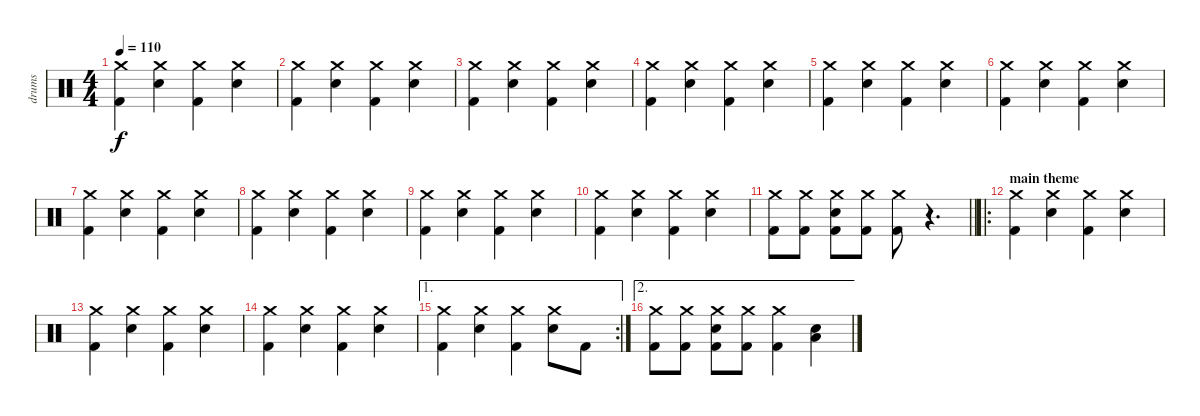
\track ("drums" "drums") {instrument percussion}
\staff {score}
\articulation defaults
\ts (4 4)
\tempo 110
\clef neutral
\ks c
("Crash medium (hit)" "Kick (hit) 2").4{dy f} ("Crash medium (hit)" "Electric Snare (hit)").4 ("Crash medium (hit)" "Kick (hit) 2").4 ("Crash medium (hit)" "Electric Snare (hit)").4 |
("Crash medium (hit)" "Kick (hit) 2").4 ("Crash medium (hit)" "Electric Snare (hit)").4 ("Crash medium (hit)" "Kick (hit) 2").4 ("Crash medium (hit)" "Electric Snare (hit)").4 |
("Crash medium (hit)" "Kick (hit) 2").4 ("Crash medium (hit)" "Electric Snare (hit)").4 ("Crash medium (hit)" "Kick (hit) 2").4 ("Crash medium (hit)" "Electric Snare (hit)").4 |
("Crash medium (hit)" "Kick (hit) 2").4 ("Crash medium (hit)" "Electric Snare (hit)").4 ("Crash medium (hit)" "Kick (hit) 2").4 ("Crash medium (hit)" "Electric Snare (hit)").4 |
("Crash medium (hit)" "Kick (hit) 2").4 ("Crash medium (hit)" "Electric Snare (hit)").4 ("Crash medium (hit)" "Kick (hit) 2").4 ("Crash medium (hit)" "Electric Snare (hit)").4 |
("Crash medium (hit)" "Kick (hit) 2").4 ("Crash medium (hit)" "Electric Snare (hit)").4 ("Crash medium (hit)" "Kick (hit) 2").4 ("Crash medium (hit)" "Electric Snare (hit)").4 |
("Crash medium (hit)" "Kick (hit) 2").4 ("Crash medium (hit)" "Electric Snare (hit)").4 ("Crash medium (hit)" "Kick (hit) 2").4 ("Crash medium (hit)" "Electric Snare (hit)").4 |
("Crash medium (hit)" "Kick (hit) 2").4 ("Crash medium (hit)" "Electric Snare (hit)").4 ("Crash medium (hit)" "Kick (hit) 2").4 ("Crash medium (hit)" "Electric Snare (hit)").4 |
("Crash medium (hit)" "Kick (hit) 2").4 ("Crash medium (hit)" "Electric Snare (hit)").4 ("Crash medium (hit)" "Kick (hit) 2").4 ("Crash medium (hit)" "Electric Snare (hit)").4 |
("Crash medium (hit)" "Kick (hit) 2").4 ("Crash medium (hit)" "Electric Snare (hit)").4 ("Crash medium (hit)" "Kick (hit) 2").4 ("Crash medium (hit)" "Electric Snare (hit)").4 |
\barLineRight lightlight
("Crash medium (hit)" "Kick (hit) 2").8 ("Crash medium (hit)" "Kick (hit) 2").8 ("Crash medium (hit)" "Electric Snare (hit)" "Kick (hit) 2").8 ("Crash medium (hit)" "Kick (hit) 2").8 ("Crash medium (hit)" "Kick (hit) 2").8 r.4{d} |
\ro
\section ("" "main theme")
("Crash medium (hit)" "Kick (hit) 2").4 ("Crash medium (hit)" "Electric Snare (hit)").4 ("Crash medium (hit)" "Kick (hit) 2").4 ("Crash medium (hit)" "Electric Snare (hit)").4 |
("Crash medium (hit)" "Kick (hit) 2").4 ("Crash medium (hit)" "Electric Snare (hit)").4 ("Crash medium (hit)" "Kick (hit) 2").4 ("Crash medium (hit)" "Electric Snare (hit)").4 |
("Crash medium (hit)" "Kick (hit) 2").4 ("Crash medium (hit)" "Electric Snare (hit)").4 ("Crash medium (hit)" "Kick (hit) 2").4 ("Crash medium (hit)" "Electric Snare (hit)").4 |
\ae 1
\rc 2
("Crash medium (hit)" "Kick (hit) 2").4 ("Crash medium (hit)" "Electric Snare (hit)").4 ("Crash medium (hit)" "Kick (hit) 2").4 ("Crash medium (hit)" "Electric Snare (hit)").8 "Kick (hit) 2".8 |
\ae 2
("Crash medium (hit)" "Kick (hit) 2").8 ("Crash medium (hit)" "Kick (hit) 2").8 ("Crash medium (hit)" "Electric Snare (hit)" "Kick (hit) 2").8 ("Crash medium (hit)" "Kick (hit) 2").8 ("Crash medium (hit)" "Kick (hit) 2").4 ("Low Tom (hit)" "Electric Snare (hit)").4
